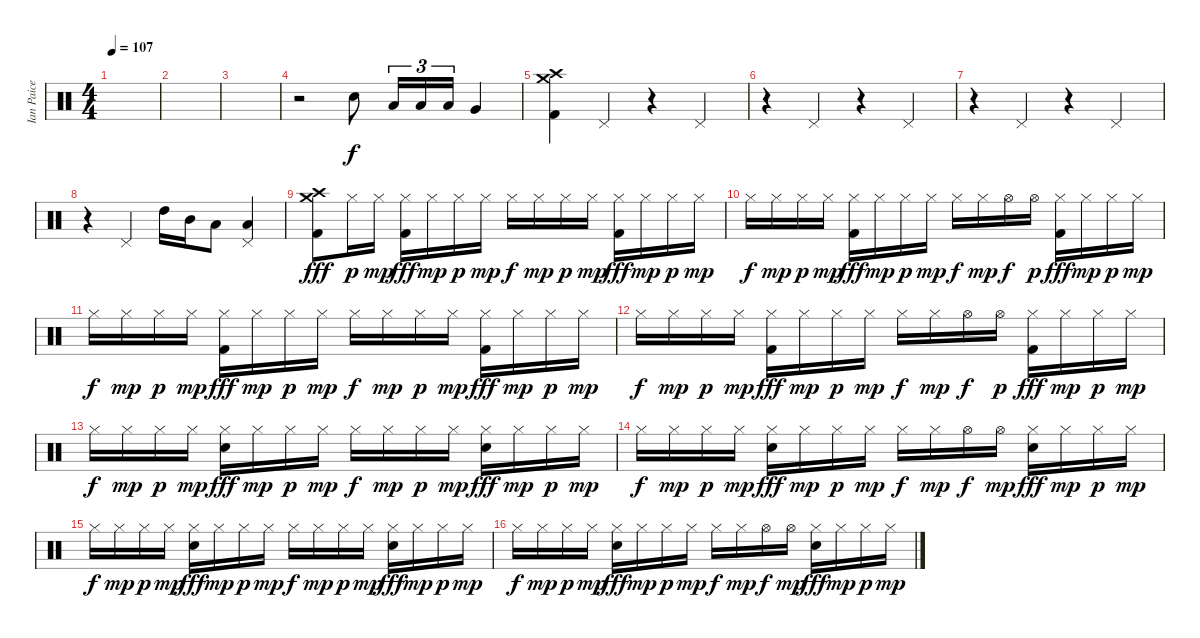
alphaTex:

\track ("Ian Paice" "Ian Paice") {instrument percussion}
\staff {score}
\articulation defaults
\ts (4 4)
\tempo 107
\clef neutral
\ks c
|
|
|
r.2 "Electric Snare (hit)".8 "Low Tom (hit)".16{tu (3 2)} "Low Tom (hit)".16{tu (3 2)} "Low Tom (hit)".16{tu (3 2)} "Very Low Tom (hit)".4 |
("Crash high (hit)" "Crash medium (hit)" "Kick (hit) 2").4 "Pedal Hi-Hat (hit)".4 r.4 "Pedal Hi-Hat (hit)".4 |
r.4 "Pedal Hi-Hat (hit)".4 r.4 "Pedal Hi-Hat (hit)".4 |
r.4 "Pedal Hi-Hat (hit)".4 r.4 "Pedal Hi-Hat (hit)".4 |
r.4 "Pedal Hi-Hat (hit)".4 "High Tom (hit)".16 "Mid Tom (hit)".16 "Low Tom (hit)".8 ("Low Tom (hit)" "Pedal Hi-Hat (hit)").4 |
("Crash high (hit)" "Crash medium (hit)" "Kick (hit) 2").8{dy fff} "Hi-Hat (closed)".16{dy p} "Hi-Hat (closed)".16{dy mp} ("Hi-Hat (closed)" "Kick (hit) 2").16{dy fff} "Hi-Hat (closed)".16{dy mp} "Hi-Hat (closed)".16{dy p} "Hi-Hat (closed)".16{dy mp} "Hi-Hat (closed)".16{dy f} "Hi-Hat (closed)".16{dy mp} "Hi-Hat (closed)".16{dy p} "Hi-Hat (closed)".16{dy mp} ("Hi-Hat (closed)" "Kick (hit) 2").16{dy fff} "Hi-Hat (closed)".16{dy mp} "Hi-Hat (closed)".16{dy p} "Hi-Hat (closed)".16{dy mp} |
"Hi-Hat (closed)".16{dy f} "Hi-Hat (closed)".16{dy mp} "Hi-Hat (closed)".16{dy p} "Hi-Hat (closed)".16{dy mp} ("Hi-Hat (closed)" "Kick (hit) 2").16{dy fff} "Hi-Hat (closed)".16{dy mp} "Hi-Hat (closed)".16{dy p} "Hi-Hat (closed)".16{dy mp} "Hi-Hat (closed)".16{dy f} "Hi-Hat (closed)".16{dy mp} "Hi-Hat (open)".16{dy f} "Hi-Hat (open)".16{dy p} ("Hi-Hat (closed)" "Kick (hit) 2").16{dy fff} "Hi-Hat (closed)".16{dy mp} "Hi-Hat (closed)".16{dy p} "Hi-Hat (closed)".16{dy mp} |
"Hi-Hat (closed)".16{dy f} "Hi-Hat (closed)".16{dy mp} "Hi-Hat (closed)".16{dy p} "Hi-Hat (closed)".16{dy mp} ("Hi-Hat (closed)" "Kick (hit) 2").16{dy fff} "Hi-Hat (closed)".16{dy mp} "Hi-Hat (closed)".16{dy p} "Hi-Hat (closed)".16{dy mp} "Hi-Hat (closed)".16{dy f} "Hi-Hat (closed)".16{dy mp} "Hi-Hat (closed)".16{dy p} "Hi-Hat (closed)".16{dy mp} ("Hi-Hat (closed)" "Kick (hit) 2").16{dy fff} "Hi-Hat (closed)".16{dy mp} "Hi-Hat (closed)".16{dy p} "Hi-Hat (closed)".16{dy mp} |
"Hi-Hat (closed)".16{dy f} "Hi-Hat (closed)".16{dy mp} "Hi-Hat (closed)".16{dy p} "Hi-Hat (closed)".16{dy mp} ("Hi-Hat (closed)" "Kick (hit) 2").16{dy fff} "Hi-Hat (closed)".16{dy mp} "Hi-Hat (closed)".16{dy p} "Hi-Hat (closed)".16{dy mp} "Hi-Hat (closed)".16{dy f} "Hi-Hat (closed)".16{dy mp} "Hi-Hat (open)".16{dy f} "Hi-Hat (open)".16{dy p} ("Hi-Hat (closed)" "Kick (hit) 2").16{dy fff} "Hi-Hat (closed)".16{dy mp} "Hi-Hat (closed)".16{dy p} "Hi-Hat (closed)".16{dy mp} |
"Hi-Hat (closed)".16{dy f} "Hi-Hat (closed)".16{dy mp} "Hi-Hat (closed)".16{dy p} "Hi-Hat (closed)".16{dy mp} ("Hi-Hat (closed)" "Electric Snare (hit)").16{dy fff} "Hi-Hat (closed)".16{dy mp} "Hi-Hat (closed)".16{dy p} "Hi-Hat (closed)".16{dy mp} "Hi-Hat (closed)".16{dy f} "Hi-Hat (closed)".16{dy mp} "Hi-Hat (closed)".16{dy p} "Hi-Hat (closed)".16{dy mp} ("Hi-Hat (closed)" "Electric Snare (hit)").16{dy fff} "Hi-Hat (closed)".16{dy mp} "Hi-Hat (closed)".16{dy p} "Hi-Hat (closed)".16{dy mp} |
"Hi-Hat (closed)".16{dy f} "Hi-Hat (closed)".16{dy mp} "Hi-Hat (closed)".16{dy p} "Hi-Hat (closed)".16{dy mp} ("Hi-Hat (closed)" "Electric Snare (hit)").16{dy fff} "Hi-Hat (closed)".16{dy mp} "Hi-Hat (closed)".16{dy p} "Hi-Hat (closed)".16{dy mp} "Hi-Hat (closed)".16{dy f} "Hi-Hat (closed)".16{dy mp} "Hi-Hat (open)".16{dy f} "Hi-Hat (open)".16{dy mp} ("Hi-Hat (closed)" "Electric Snare (hit)").16{dy fff} "Hi-Hat (closed)".16{dy mp} "Hi-Hat (closed)".16{dy p} "Hi-Hat (closed)".16{dy mp} |
"Hi-Hat (closed)".16{dy f} "Hi-Hat (closed)".16{dy mp} "Hi-Hat (closed)".16{dy p} "Hi-Hat (closed)".16{dy mp} ("Hi-Hat (closed)" "Electric Snare (hit)").16{dy fff} "Hi-Hat (closed)".16{dy mp} "Hi-Hat (closed)".16{dy p} "Hi-Hat (closed)".16{dy mp} "Hi-Hat (closed)".16{dy f} "Hi-Hat (closed)".16{dy mp} "Hi-Hat (closed)".16{dy p} "Hi-Hat (closed)".16{dy mp} ("Hi-Hat (closed)" "Electric Snare (hit)").16{dy fff} "Hi-Hat (closed)".16{dy mp} "Hi-Hat (closed)".16{dy p} "Hi-Hat (closed)".16{dy mp} |
"Hi-Hat (closed)".16{dy f} "Hi-Hat (closed)".16{dy mp} "Hi-Hat (closed)".16{dy p} "Hi-Hat (closed)".16{dy mp} ("Hi-Hat (closed)" "Electric Snare (hit)").16{dy fff} "Hi-Hat (closed)".16{dy mp} "Hi-Hat (closed)".16{dy p} "Hi-Hat (closed)".16{dy mp} "Hi-Hat (closed)".16{dy f} "Hi-Hat (closed)".16{dy mp} "Hi-Hat (open)".16{dy f} "Hi-Hat (open)".16{dy mp} ("Hi-Hat (closed)" "Electric Snare (hit)").16{dy fff} "Hi-Hat (closed)".16{dy mp} "Hi-Hat (closed)".16{dy p} "Hi-Hat (closed)".16{dy mp}
